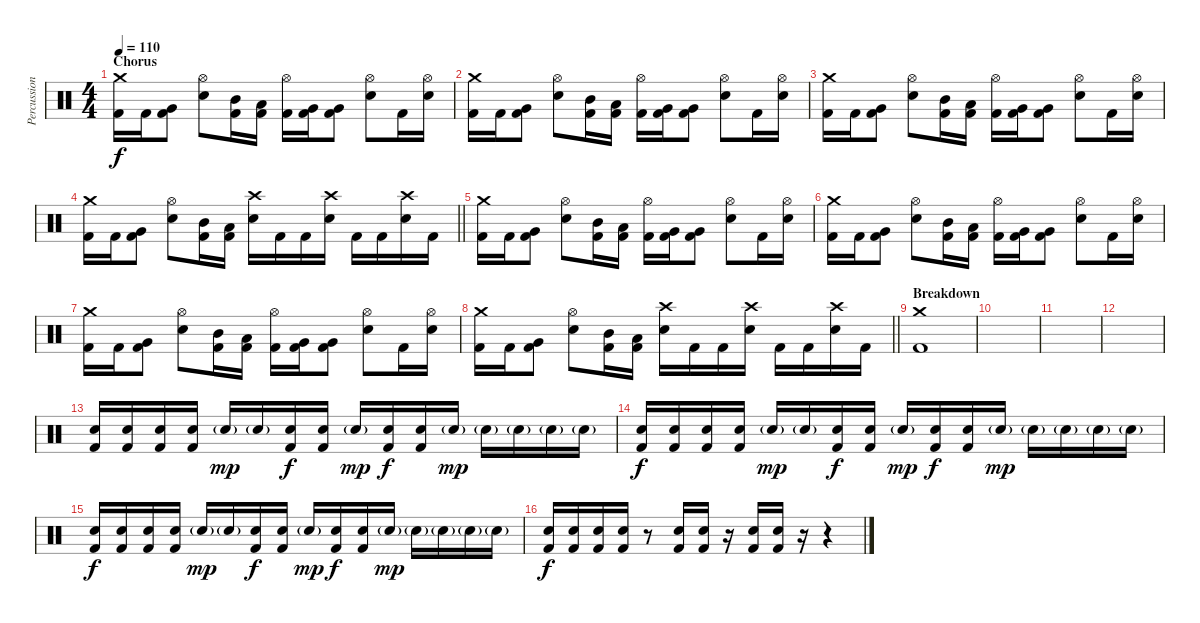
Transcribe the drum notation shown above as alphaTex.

\track ("Percussion" "Percussion") {instrument percussion}
\staff {score}
\articulation defaults
\ts (4 4)
\section ("" "Chorus")
\tempo 110
\clef neutral
\ks c
("Kick (hit) 2" "Crash medium (hit)").16{dy f} "Kick (hit) 2".16 ("Very Low Tom (hit)" "Kick (hit) 2").8 ("Hi-Hat (open)" "Snare (hit) 2").8 ("Mid Tom (hit)" "Kick (hit) 2").16 ("Low Tom (hit)" "Kick (hit) 2").16 ("Hi-Hat (open)" "Kick (hit) 2").16 ("Very Low Tom (hit)" "Kick (hit) 2").16 ("Very Low Tom (hit)" "Kick (hit) 2").8 ("Hi-Hat (open)" "Snare (hit) 2").8 "Kick (hit) 2".16 ("Hi-Hat (open)" "Snare (hit) 2").16 |
("Kick (hit) 2" "Crash medium (hit)").16 "Kick (hit) 2".16 ("Very Low Tom (hit)" "Kick (hit) 2").8 ("Hi-Hat (open)" "Snare (hit) 2").8 ("Mid Tom (hit)" "Kick (hit) 2").16 ("Low Tom (hit)" "Kick (hit) 2").16 ("Hi-Hat (open)" "Kick (hit) 2").16 ("Very Low Tom (hit)" "Kick (hit) 2").16 ("Very Low Tom (hit)" "Kick (hit) 2").8 ("Hi-Hat (open)" "Snare (hit) 2").8 "Kick (hit) 2".16 ("Hi-Hat (open)" "Snare (hit) 2").16 |
("Kick (hit) 2" "Crash medium (hit)").16 "Kick (hit) 2".16 ("Very Low Tom (hit)" "Kick (hit) 2").8 ("Hi-Hat (open)" "Snare (hit) 2").8 ("Mid Tom (hit)" "Kick (hit) 2").16 ("Low Tom (hit)" "Kick (hit) 2").16 ("Hi-Hat (open)" "Kick (hit) 2").16 ("Very Low Tom (hit)" "Kick (hit) 2").16 ("Very Low Tom (hit)" "Kick (hit) 2").8 ("Hi-Hat (open)" "Snare (hit) 2").8 "Kick (hit) 2".16 ("Hi-Hat (open)" "Snare (hit) 2").16 |
\barLineRight lightlight
("Kick (hit) 2" "Crash medium (hit)").16 "Kick (hit) 2".16 ("Very Low Tom (hit)" "Kick (hit) 2").8 ("Hi-Hat (open)" "Snare (hit) 2").8 ("Mid Tom (hit)" "Kick (hit) 2").16 ("Low Tom (hit)" "Kick (hit) 2").16 ("Snare (hit) 2" "Crash high (hit)").16 "Kick (hit) 2".16 "Kick (hit) 2".16 ("Snare (hit) 2" "Crash high (hit)").16 "Kick (hit) 2".16 "Kick (hit) 2".16 ("Snare (hit) 2" "Crash high (hit)").16 "Kick (hit) 2".16 |
("Kick (hit) 2" "Crash medium (hit)").16 "Kick (hit) 2".16 ("Very Low Tom (hit)" "Kick (hit) 2").8 ("Hi-Hat (open)" "Snare (hit) 2").8 ("Mid Tom (hit)" "Kick (hit) 2").16 ("Low Tom (hit)" "Kick (hit) 2").16 ("Hi-Hat (open)" "Kick (hit) 2").16 ("Very Low Tom (hit)" "Kick (hit) 2").16 ("Very Low Tom (hit)" "Kick (hit) 2").8 ("Hi-Hat (open)" "Snare (hit) 2").8 "Kick (hit) 2".16 ("Hi-Hat (open)" "Snare (hit) 2").16 |
("Kick (hit) 2" "Crash medium (hit)").16 "Kick (hit) 2".16 ("Very Low Tom (hit)" "Kick (hit) 2").8 ("Hi-Hat (open)" "Snare (hit) 2").8 ("Mid Tom (hit)" "Kick (hit) 2").16 ("Low Tom (hit)" "Kick (hit) 2").16 ("Hi-Hat (open)" "Kick (hit) 2").16 ("Very Low Tom (hit)" "Kick (hit) 2").16 ("Very Low Tom (hit)" "Kick (hit) 2").8 ("Hi-Hat (open)" "Snare (hit) 2").8 "Kick (hit) 2".16 ("Hi-Hat (open)" "Snare (hit) 2").16 |
("Kick (hit) 2" "Crash medium (hit)").16 "Kick (hit) 2".16 ("Very Low Tom (hit)" "Kick (hit) 2").8 ("Hi-Hat (open)" "Snare (hit) 2").8 ("Mid Tom (hit)" "Kick (hit) 2").16 ("Low Tom (hit)" "Kick (hit) 2").16 ("Hi-Hat (open)" "Kick (hit) 2").16 ("Very Low Tom (hit)" "Kick (hit) 2").16 ("Very Low Tom (hit)" "Kick (hit) 2").8 ("Hi-Hat (open)" "Snare (hit) 2").8 "Kick (hit) 2".16 ("Hi-Hat (open)" "Snare (hit) 2").16 |
\barLineRight lightlight
("Kick (hit) 2" "Crash medium (hit)").16 "Kick (hit) 2".16 ("Very Low Tom (hit)" "Kick (hit) 2").8 ("Hi-Hat (open)" "Snare (hit) 2").8 ("Mid Tom (hit)" "Kick (hit) 2").16 ("Low Tom (hit)" "Kick (hit) 2").16 ("Snare (hit) 2" "Crash high (hit)").16 "Kick (hit) 2".16 "Kick (hit) 2".16 ("Snare (hit) 2" "Crash high (hit)").16 "Kick (hit) 2".16 "Kick (hit) 2".16 ("Snare (hit) 2" "Crash high (hit)").16 "Kick (hit) 2".16 |
\section ("" "Breakdown")
("Kick (hit) 2" "Crash medium (hit)").1 |
|
|
|
("Snare (hit) 2" "Kick (hit) 2").16 ("Snare (hit) 2" "Kick (hit) 2").16 ("Snare (hit) 2" "Kick (hit) 2").16 ("Snare (hit) 2" "Kick (hit) 2").16 "Snare (hit) 2"{g}.16{dy mp} "Snare (hit) 2"{g}.16 ("Snare (hit) 2" "Kick (hit) 2").16{dy f} ("Snare (hit) 2" "Kick (hit) 2").16 "Snare (hit) 2"{g}.16{dy mp} ("Snare (hit) 2" "Kick (hit) 2").16{dy f} ("Snare (hit) 2" "Kick (hit) 2").16 "Snare (hit) 2"{g}.16{dy mp} "Snare (hit) 2"{g}.16 "Snare (hit) 2"{g}.16 "Snare (hit) 2"{g}.16 "Snare (hit) 2"{g}.16 |
("Snare (hit) 2" "Kick (hit) 2").16{dy f} ("Snare (hit) 2" "Kick (hit) 2").16 ("Snare (hit) 2" "Kick (hit) 2").16 ("Snare (hit) 2" "Kick (hit) 2").16 "Snare (hit) 2"{g}.16{dy mp} "Snare (hit) 2"{g}.16 ("Snare (hit) 2" "Kick (hit) 2").16{dy f} ("Snare (hit) 2" "Kick (hit) 2").16 "Snare (hit) 2"{g}.16{dy mp} ("Snare (hit) 2" "Kick (hit) 2").16{dy f} ("Snare (hit) 2" "Kick (hit) 2").16 "Snare (hit) 2"{g}.16{dy mp} "Snare (hit) 2"{g}.16 "Snare (hit) 2"{g}.16 "Snare (hit) 2"{g}.16 "Snare (hit) 2"{g}.16 |
("Snare (hit) 2" "Kick (hit) 2").16{dy f} ("Snare (hit) 2" "Kick (hit) 2").16 ("Snare (hit) 2" "Kick (hit) 2").16 ("Snare (hit) 2" "Kick (hit) 2").16 "Snare (hit) 2"{g}.16{dy mp} "Snare (hit) 2"{g}.16 ("Snare (hit) 2" "Kick (hit) 2").16{dy f} ("Snare (hit) 2" "Kick (hit) 2").16 "Snare (hit) 2"{g}.16{dy mp} ("Snare (hit) 2" "Kick (hit) 2").16{dy f} ("Snare (hit) 2" "Kick (hit) 2").16 "Snare (hit) 2"{g}.16{dy mp} "Snare (hit) 2"{g}.16 "Snare (hit) 2"{g}.16 "Snare (hit) 2"{g}.16 "Snare (hit) 2"{g}.16 |
("Snare (hit) 2" "Kick (hit) 2").16{dy f} ("Snare (hit) 2" "Kick (hit) 2").16 ("Snare (hit) 2" "Kick (hit) 2").16 ("Snare (hit) 2" "Kick (hit) 2").16 r.8 ("Snare (hit) 2" "Kick (hit) 2").16 ("Snare (hit) 2" "Kick (hit) 2").16 r.16 ("Snare (hit) 2" "Kick (hit) 2").16 ("Snare (hit) 2" "Kick (hit) 2").16 r.16 r.4
